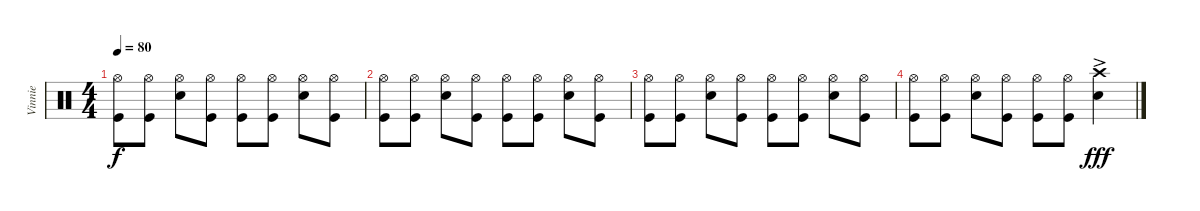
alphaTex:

\track ("Vinnie" "Vinnie") {instrument percussion}
\staff {score}
\articulation defaults
\ts (4 4)
\tempo 80
\clef neutral
\ks c
("Hi-Hat (open)" "Kick (hit)").8{dy f} ("Hi-Hat (open)" "Kick (hit)").8 ("Hi-Hat (open)" "Electric Snare (hit)").8 ("Hi-Hat (open)" "Kick (hit)").8 ("Hi-Hat (open)" "Kick (hit)").8 ("Hi-Hat (open)" "Kick (hit)").8 ("Hi-Hat (open)" "Electric Snare (hit)").8 ("Hi-Hat (open)" "Kick (hit)").8 |
("Hi-Hat (open)" "Kick (hit)").8 ("Hi-Hat (open)" "Kick (hit)").8 ("Hi-Hat (open)" "Electric Snare (hit)").8 ("Hi-Hat (open)" "Kick (hit)").8 ("Hi-Hat (open)" "Kick (hit)").8 ("Hi-Hat (open)" "Kick (hit)").8 ("Hi-Hat (open)" "Electric Snare (hit)").8 ("Hi-Hat (open)" "Kick (hit)").8 |
("Hi-Hat (open)" "Kick (hit)").8 ("Hi-Hat (open)" "Kick (hit)").8 ("Hi-Hat (open)" "Electric Snare (hit)").8 ("Hi-Hat (open)" "Kick (hit)").8 ("Hi-Hat (open)" "Kick (hit)").8 ("Hi-Hat (open)" "Kick (hit)").8 ("Hi-Hat (open)" "Electric Snare (hit)").8 ("Hi-Hat (open)" "Kick (hit)").8 |
("Hi-Hat (open)" "Kick (hit)").8 ("Hi-Hat (open)" "Kick (hit)").8 ("Hi-Hat (open)" "Electric Snare (hit)").8 ("Hi-Hat (open)" "Kick (hit)").8 ("Hi-Hat (open)" "Kick (hit)").8 ("Hi-Hat (open)" "Kick (hit)").8 ("Crash high (hit)" "Electric Snare (hit)"{ac}).4{dy fff}
